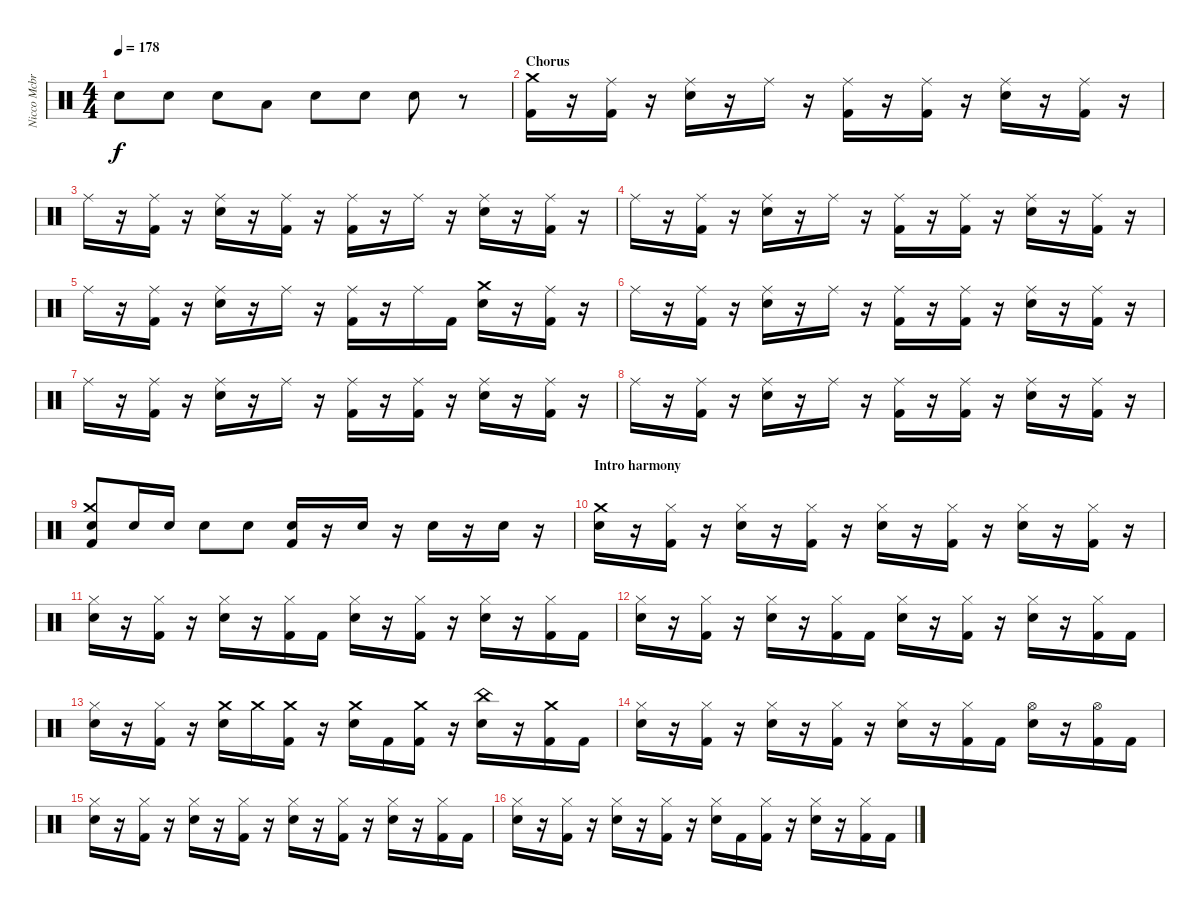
\track ("Nicco Mcbrian - Drums" "Nicco Mcbr") {instrument percussion}
\staff {score}
\articulation defaults
\ts (4 4)
\tempo 178
\clef neutral
\ks c "Snare (hit) 2".8{dy f} "Snare (hit) 2".8 "Snare (hit) 2".8 "Low Tom (hit)".8 "Snare (hit) 2".8 "Snare (hit) 2".8 "Snare (hit) 2".8
r.8 |
\section ("" "Chorus")
("Crash medium (hit)" "Kick (hit) 2").16 r.16 ("Ride (middle)" "Kick (hit) 2").16 r.16 ("Ride (middle)" "Snare (hit) 2").16 r.16 "Ride (middle)".16 r.16 ("Ride (middle)" "Kick (hit) 2").16 r.16 ("Ride (middle)" "Kick (hit) 2").16 r.16 ("Ride (middle)" "Snare (hit) 2").16 r.16 ("Ride (middle)" "Kick (hit) 2").16 r.16 |
"Ride (middle)".16 r.16 ("Ride (middle)" "Kick (hit) 2").16 r.16 ("Ride (middle)" "Snare (hit) 2").16 r.16 ("Ride (middle)" "Kick (hit) 2").16 r.16 ("Ride (middle)" "Kick (hit) 2").16 r.16 "Ride (middle)".16 r.16 ("Ride (middle)" "Snare (hit) 2").16 r.16 ("Ride (middle)" "Kick (hit) 2").16 r.16 |
"Ride (middle)".16 r.16 ("Ride (middle)" "Kick (hit) 2").16 r.16 ("Ride (middle)" "Snare (hit) 2").16 r.16 "Ride (middle)".16 r.16 ("Ride (middle)" "Kick (hit) 2").16 r.16 ("Ride (middle)" "Kick (hit) 2").16 r.16 ("Ride (middle)" "Snare (hit) 2").16 r.16 ("Ride (middle)" "Kick (hit) 2").16 r.16 |
"Ride (middle)".16 r.16 ("Ride (middle)" "Kick (hit) 2").16 r.16 ("Ride (middle)" "Snare (hit) 2").16 r.16 "Ride (middle)".16 r.16 ("Ride (middle)" "Kick (hit) 2").16 r.16 "Ride (middle)".16 "Kick (hit) 2".16 ("Crash medium (hit)" "Snare (hit) 2").16 r.16 ("Ride (middle)" "Kick (hit) 2").16 r.16 |
"Ride (middle)".16 r.16 ("Ride (middle)" "Kick (hit) 2").16 r.16 ("Ride (middle)" "Snare (hit) 2").16 r.16 "Ride (middle)".16 r.16 ("Ride (middle)" "Kick (hit) 2").16 r.16 ("Ride (middle)" "Kick (hit) 2").16 r.16 ("Ride (middle)" "Snare (hit) 2").16 r.16 ("Ride (middle)" "Kick (hit) 2").16 r.16 |
"Ride (middle)".16 r.16 ("Ride (middle)" "Kick (hit) 2").16 r.16 ("Ride (middle)" "Snare (hit) 2").16 r.16 "Ride (middle)".16 r.16 ("Ride (middle)" "Kick (hit) 2").16 r.16 ("Ride (middle)" "Kick (hit) 2").16 r.16 ("Ride (middle)" "Snare (hit) 2").16 r.16 ("Ride (middle)" "Kick (hit) 2").16 r.16 |
"Ride (middle)".16 r.16 ("Ride (middle)" "Kick (hit) 2").16 r.16 ("Ride (middle)" "Snare (hit) 2").16 r.16 "Ride (middle)".16 r.16 ("Ride (middle)" "Kick (hit) 2").16 r.16 ("Ride (middle)" "Kick (hit) 2").16 r.16 ("Ride (middle)" "Snare (hit) 2").16 r.16 ("Ride (middle)" "Kick (hit) 2").16 r.16 |
("Crash medium (hit)" "Snare (hit) 2" "Kick (hit) 2").8 "Snare (hit) 2".16 "Snare (hit) 2".16 "Snare (hit) 2".8 "Snare (hit) 2".8 ("Snare (hit) 2" "Kick (hit) 2").16 r.16 "Snare (hit) 2".16 r.16 "Snare (hit) 2".16 r.16 "Snare (hit) 2".16 r.16 |
\section ("" "Intro harmony")
("Crash medium (hit)" "Snare (hit) 2").16{volume 10} r.16 ("Hi-Hat (closed)" "Kick (hit) 2").16 r.16 ("Hi-Hat (closed)" "Snare (hit) 2").16 r.16 ("Hi-Hat (closed)" "Kick (hit) 2").16 r.16 ("Hi-Hat (closed)" "Snare (hit) 2").16 r.16 ("Hi-Hat (closed)" "Kick (hit) 2").16 r.16 ("Hi-Hat (closed)" "Snare (hit) 2").16 r.16 ("Hi-Hat (closed)" "Kick (hit) 2").16 r.16 |
("Hi-Hat (closed)" "Snare (hit) 2").16 r.16 ("Hi-Hat (closed)" "Kick (hit) 2").16 r.16 ("Hi-Hat (closed)" "Snare (hit) 2").16 r.16 ("Hi-Hat (closed)" "Kick (hit) 2").16 "Kick (hit) 2".16 ("Hi-Hat (closed)" "Snare (hit) 2").16 r.16 ("Hi-Hat (closed)" "Kick (hit) 2").16 r.16 ("Hi-Hat (closed)" "Snare (hit) 2").16 r.16 ("Hi-Hat (closed)" "Kick (hit) 2").16 "Kick (hit) 2".16 |
("Hi-Hat (closed)" "Snare (hit) 2").16 r.16 ("Hi-Hat (closed)" "Kick (hit) 2").16 r.16 ("Hi-Hat (closed)" "Snare (hit) 2").16 r.16 ("Hi-Hat (closed)" "Kick (hit) 2").16 "Kick (hit) 2".16 ("Hi-Hat (closed)" "Snare (hit) 2").16 r.16 ("Hi-Hat (closed)" "Kick (hit) 2").16 r.16 ("Hi-Hat (closed)" "Snare (hit) 2").16 r.16 ("Hi-Hat (closed)" "Kick (hit) 2").16 "Kick (hit) 2".16 |
("Hi-Hat (closed)" "Snare (hit) 2").16 r.16 ("Hi-Hat (closed)" "Kick (hit) 2").16 r.16 ("Crash medium (hit)" "Snare (hit) 2").16 "Crash medium (hit)".16 ("Crash medium (hit)" "Kick (hit) 2").16 r.16 ("Crash medium (hit)" "Snare (hit) 2").16 "Kick (hit) 2".16 ("Crash medium (hit)" "Kick (hit) 2").16 r.16 ("China (hit)" "Snare (hit) 2").16 r.16 ("Crash medium (hit)" "Kick (hit) 2").16 "Kick (hit) 2".16 |
("Hi-Hat (closed)" "Snare (hit) 2").16 r.16 ("Hi-Hat (closed)" "Kick (hit) 2").16 r.16 ("Hi-Hat (closed)" "Snare (hit) 2").16 r.16 ("Hi-Hat (closed)" "Kick (hit) 2").16 r.16 ("Hi-Hat (closed)" "Snare (hit) 2").16 r.16 ("Hi-Hat (closed)" "Kick (hit) 2").16 "Kick (hit) 2".16 ("Hi-Hat (open)" "Snare (hit) 2").16 r.16 ("Hi-Hat (open)" "Kick (hit) 2").16 "Kick (hit) 2".16 |
("Hi-Hat (closed)" "Snare (hit) 2").16 r.16 ("Hi-Hat (closed)" "Kick (hit) 2").16 r.16 ("Hi-Hat (closed)" "Snare (hit) 2").16 r.16 ("Hi-Hat (closed)" "Kick (hit) 2").16 r.16 ("Hi-Hat (closed)" "Snare (hit) 2").16 r.16 ("Hi-Hat (closed)" "Kick (hit) 2").16 r.16 ("Hi-Hat (closed)" "Snare (hit) 2").16 r.16 ("Hi-Hat (closed)" "Kick (hit) 2").16 "Kick (hit) 2".16 |
("Hi-Hat (closed)" "Snare (hit) 2").16 r.16 ("Hi-Hat (closed)" "Kick (hit) 2").16 r.16 ("Hi-Hat (closed)" "Snare (hit) 2").16 r.16 ("Hi-Hat (closed)" "Kick (hit) 2").16 r.16 ("Hi-Hat (closed)" "Snare (hit) 2").16 "Kick (hit) 2".16 ("Hi-Hat (closed)" "Kick (hit) 2").16 r.16 ("Hi-Hat (closed)" "Snare (hit) 2").16 r.16 ("Hi-Hat (closed)" "Kick (hit) 2").16 "Kick (hit) 2".16
